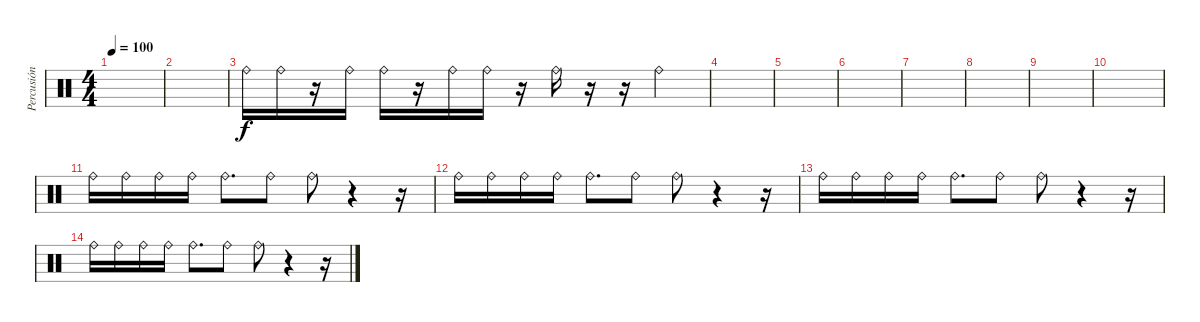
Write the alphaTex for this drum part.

\track ("Percusión" "Percusión") {instrument percussion}
\staff {score}
\articulation defaults
\ts (4 4)
\tempo 100
\clef neutral
\ks c
|
|
"Ride (bell)".16{dy f balance 0} "Ride (bell)".16 r.16 "Ride (bell)".16{balance 16} "Ride (bell)".16 r.16 "Ride (bell)".16{balance 0} "Ride (bell)".16 r.16 "Ride (bell)".16{balance 8} r.16 r.16 "Ride (bell)".4 |
|
|
|
|
|
|
|
"Ride (bell)".16{volume 0} "Ride (bell)".16 "Ride (bell)".16 "Ride (bell)".16 "Ride (bell)".8{d} "Ride (bell)".8 "Ride (bell)".8 r.4 r.16 |
"Ride (bell)".16 "Ride (bell)".16 "Ride (bell)".16 "Ride (bell)".16 "Ride (bell)".8{d} "Ride (bell)".8 "Ride (bell)".8 r.4 r.16 |
"Ride (bell)".16 "Ride (bell)".16 "Ride (bell)".16 "Ride (bell)".16 "Ride (bell)".8{d} "Ride (bell)".8 "Ride (bell)".8 r.4 r.16 |
"Ride (bell)".16 "Ride (bell)".16 "Ride (bell)".16 "Ride (bell)".16 "Ride (bell)".8{d} "Ride (bell)".8 "Ride (bell)".8 r.4 r.16
